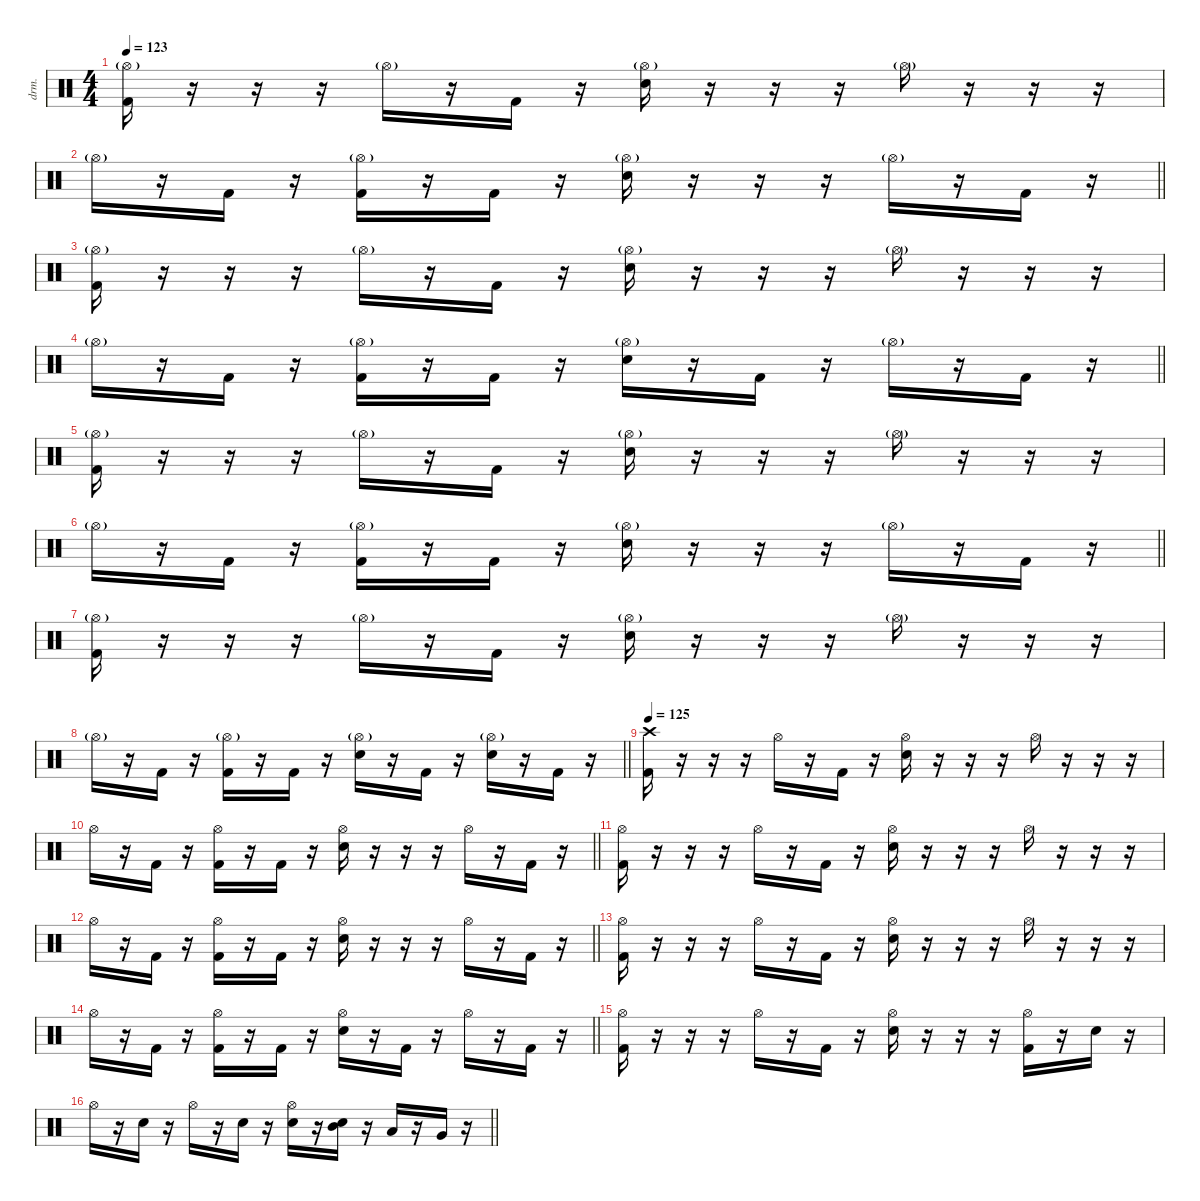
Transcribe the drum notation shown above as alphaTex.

\defaultSystemsLayout 4
\hideDynamics
\bracketExtendMode nobrackets
\otherSystemsTrackNameOrientation horizontal
\track ("Percussion" "drm.") {instrument percussion}
\staff {score}
\articulation defaults
\ts (4 4)
\tempo 123
\clef neutral
\ks c
("Kick (hit) 2" "Hi-Hat (open)"{g}).16{dy f beam Down} r.16{beam Down} r.16{beam Down} r.16{beam Down} "Hi-Hat (open)"{g}.16{dy mf beam Down} r.16{beam Down} "Kick (hit) 2".16{dy f beam Down} r.16{beam Down} ("Snare (hit) 2" "Hi-Hat (open)"{g}).16{beam Down} r.16{beam Down} r.16{beam Down} r.16{beam Down} "Hi-Hat (open)"{g}.16{dy mf beam Down} r.16{beam Down} r.16{beam Down} r.16{beam Down} |
\barLineRight lightlight "Hi-Hat (open)"{g}.16{beam Down}
r.16{beam Down} "Kick (hit) 2".16{dy f beam Down} r.16{beam Down} ("Kick (hit) 2" "Hi-Hat (open)"{g}).16{beam Down} r.16{beam Down} "Kick (hit) 2".16{beam Down} r.16{beam Down} ("Snare (hit) 2" "Hi-Hat (open)"{g}).16{beam Down} r.16{beam Down} r.16{beam Down} r.16{beam Down} "Hi-Hat (open)"{g}.16{dy mf beam Down} r.16{beam Down} "Kick (hit) 2".16{dy f beam Down} r.16{beam Down} |
("Kick (hit) 2" "Hi-Hat (open)"{g}).16{beam Down} r.16{beam Down} r.16{beam Down} r.16{beam Down} "Hi-Hat (open)"{g}.16{dy mf beam Down} r.16{beam Down} "Kick (hit) 2".16{dy f beam Down} r.16{beam Down} ("Snare (hit) 2" "Hi-Hat (open)"{g}).16{beam Down} r.16{beam Down} r.16{beam Down} r.16{beam Down} "Hi-Hat (open)"{g}.16{dy mf beam Down} r.16{beam Down} r.16{beam Down} r.16{beam Down} |
\barLineRight lightlight "Hi-Hat (open)"{g}.16{beam Down}
r.16{beam Down} "Kick (hit) 2".16{dy f beam Down} r.16{beam Down} ("Kick (hit) 2" "Hi-Hat (open)"{g}).16{beam Down} r.16{beam Down} "Kick (hit) 2".16{beam Down} r.16{beam Down} ("Snare (hit) 2" "Hi-Hat (open)"{g}).16{beam Down} r.16{beam Down} "Kick (hit) 2".16{beam Down} r.16{beam Down} "Hi-Hat (open)"{g}.16{dy mf beam Down} r.16{beam Down} "Kick (hit) 2".16{dy f beam Down} r.16{beam Down} |
("Kick (hit) 2" "Hi-Hat (open)"{g}).16{beam Down} r.16{beam Down} r.16{beam Down} r.16{beam Down} "Hi-Hat (open)"{g}.16{dy mf beam Down} r.16{beam Down} "Kick (hit) 2".16{dy f beam Down} r.16{beam Down} ("Snare (hit) 2" "Hi-Hat (open)"{g}).16{beam Down} r.16{beam Down} r.16{beam Down} r.16{beam Down} "Hi-Hat (open)"{g}.16{dy mf beam Down} r.16{beam Down} r.16{beam Down} r.16{beam Down} |
\barLineRight lightlight "Hi-Hat (open)"{g}.16{beam Down}
r.16{beam Down} "Kick (hit) 2".16{dy f beam Down} r.16{beam Down} ("Kick (hit) 2" "Hi-Hat (open)"{g}).16{beam Down} r.16{beam Down} "Kick (hit) 2".16{beam Down} r.16{beam Down} ("Snare (hit) 2" "Hi-Hat (open)"{g}).16{beam Down} r.16{beam Down} r.16{beam Down} r.16{beam Down} "Hi-Hat (open)"{g}.16{dy mf beam Down} r.16{beam Down} "Kick (hit) 2".16{dy f beam Down} r.16{beam Down} |
("Kick (hit) 2" "Hi-Hat (open)"{g}).16{beam Down} r.16{beam Down} r.16{beam Down} r.16{beam Down} "Hi-Hat (open)"{g}.16{dy mf beam Down} r.16{beam Down} "Kick (hit) 2".16{dy f beam Down} r.16{beam Down} ("Snare (hit) 2" "Hi-Hat (open)"{g}).16{beam Down} r.16{beam Down} r.16{beam Down} r.16{beam Down} "Hi-Hat (open)"{g}.16{dy mf beam Down} r.16{beam Down} r.16{beam Down} r.16{beam Down} |
\barLineRight lightlight "Hi-Hat (open)"{g}.16{beam Down}
r.16{beam Down} "Kick (hit) 2".16{dy f beam Down} r.16{beam Down} ("Kick (hit) 2" "Hi-Hat (open)"{g}).16{beam Down} r.16{beam Down} "Kick (hit) 2".16{beam Down} r.16{beam Down} ("Snare (hit) 2" "Hi-Hat (open)"{g}).16{beam Down} r.16{beam Down} "Kick (hit) 2".16{beam Down} r.16{beam Down} ("Snare (hit) 2" "Hi-Hat (open)"{g}).16{beam Down} r.16{beam Down} "Kick (hit) 2".16{beam Down} r.16{beam Down} |
\section ("" "")
\tempo 125
("Kick (hit) 2" "Crash high (hit)").16{beam Down} r.16{beam Down} r.16{beam Down} r.16{beam Down} "Hi-Hat (open)".16{beam Down} r.16{beam Down} "Kick (hit) 2".16{beam Down} r.16{beam Down} ("Snare (hit) 2" "Hi-Hat (open)").16{beam Down} r.16{beam Down} r.16{beam Down} r.16{beam Down} "Hi-Hat (open)".16{beam Down} r.16{beam Down} r.16{beam Down} r.16{beam Down} |
\barLineRight lightlight "Hi-Hat (open)".16{beam Down}
r.16{beam Down} "Kick (hit) 2".16{beam Down} r.16{beam Down} ("Kick (hit) 2" "Hi-Hat (open)").16{beam Down} r.16{beam Down} "Kick (hit) 2".16{beam Down} r.16{beam Down} ("Snare (hit) 2" "Hi-Hat (open)").16{beam Down} r.16{beam Down} r.16{beam Down} r.16{beam Down} "Hi-Hat (open)".16{beam Down} r.16{beam Down} "Kick (hit) 2".16{beam Down} r.16{beam Down} |
("Kick (hit) 2" "Hi-Hat (open)").16{beam Down} r.16{beam Down} r.16{beam Down} r.16{beam Down} "Hi-Hat (open)".16{beam Down} r.16{beam Down} "Kick (hit) 2".16{beam Down} r.16{beam Down} ("Snare (hit) 2" "Hi-Hat (open)").16{beam Down} r.16{beam Down} r.16{beam Down} r.16{beam Down} "Hi-Hat (open)".16{beam Down} r.16{beam Down} r.16{beam Down} r.16{beam Down} |
\barLineRight lightlight "Hi-Hat (open)".16{beam Down}
r.16{beam Down} "Kick (hit) 2".16{beam Down} r.16{beam Down} ("Kick (hit) 2" "Hi-Hat (open)").16{beam Down} r.16{beam Down} "Kick (hit) 2".16{beam Down} r.16{beam Down} ("Snare (hit) 2" "Hi-Hat (open)").16{beam Down} r.16{beam Down} r.16{beam Down} r.16{beam Down} "Hi-Hat (open)".16{beam Down} r.16{beam Down} "Kick (hit) 2".16{beam Down} r.16{beam Down} |
("Kick (hit) 2" "Hi-Hat (open)").16{beam Down} r.16{beam Down} r.16{beam Down} r.16{beam Down} "Hi-Hat (open)".16{beam Down} r.16{beam Down} "Kick (hit) 2".16{beam Down} r.16{beam Down} ("Snare (hit) 2" "Hi-Hat (open)").16{beam Down} r.16{beam Down} r.16{beam Down} r.16{beam Down} "Hi-Hat (open)".16{beam Down} r.16{beam Down} r.16{beam Down} r.16{beam Down} |
\barLineRight lightlight "Hi-Hat (open)".16{beam Down}
r.16{beam Down} "Kick (hit) 2".16{beam Down} r.16{beam Down} ("Kick (hit) 2" "Hi-Hat (open)").16{beam Down} r.16{beam Down} "Kick (hit) 2".16{beam Down} r.16{beam Down} ("Snare (hit) 2" "Hi-Hat (open)").16{beam Down} r.16{beam Down} "Kick (hit) 2".16{beam Down} r.16{beam Down} "Hi-Hat (open)".16{beam Down} r.16{beam Down} "Kick (hit) 2".16{beam Down} r.16{beam Down} |
("Kick (hit) 2" "Hi-Hat (open)").16{beam Down} r.16{beam Down} r.16{beam Down} r.16{beam Down} "Hi-Hat (open)".16{beam Down} r.16{beam Down} "Kick (hit) 2".16{beam Down} r.16{beam Down} ("Snare (hit) 2" "Hi-Hat (open)").16{beam Down} r.16{beam Down} r.16{beam Down} r.16{beam Down} ("Kick (hit) 2" "Hi-Hat (open)").16{beam Down} r.16{beam Down} "Snare (hit) 2".16{beam Down} r.16{beam Down} |
\barLineRight lightlight "Hi-Hat (open)".16{beam Down}
r.16{beam Down} "Snare (hit) 2".16{beam Down} r.16{beam Down} "Hi-Hat (open)".16{beam Down} r.16{beam Down} "Snare (hit) 2".16{beam Down} r.16{beam Down} ("Snare (hit) 2" "Hi-Hat (open)").16{beam Down} r.16{beam Down} ("Snare (hit) 2" "Mid Tom (hit)").16{beam Down} r.16{beam Down} "Low Tom (hit)".16{beam Up} r.16{beam Up} "Very Low Tom (hit)".16{beam Up} r.16{beam Up}
